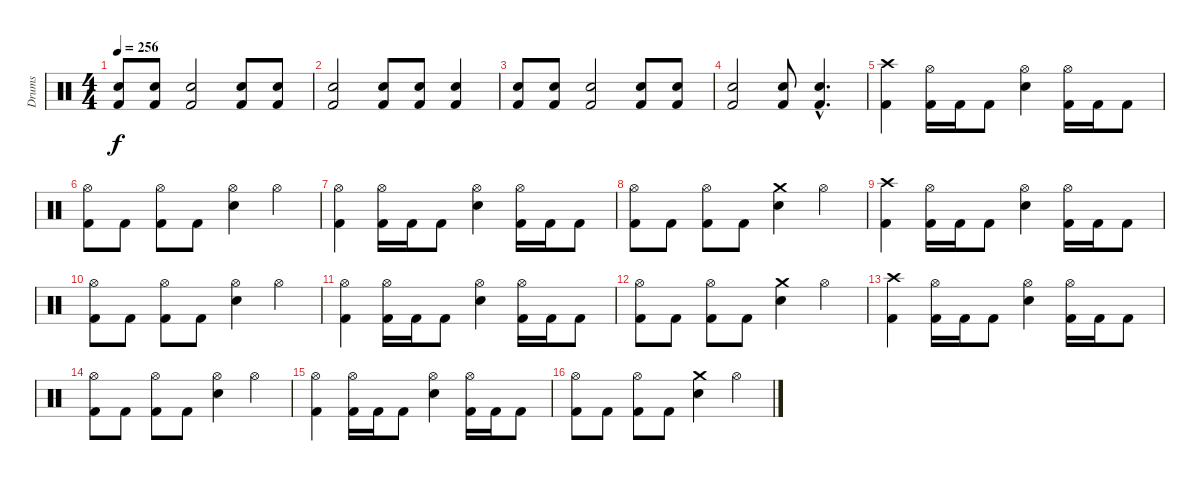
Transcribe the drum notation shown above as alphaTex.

\track ("Drums" "Drums") {instrument percussion}
\staff {score}
\articulation defaults
\ts (4 4)
\tempo 256
\clef neutral
\ks c
("Electric Snare (hit)" "Kick (hit) 2").8{dy f} ("Electric Snare (hit)" "Kick (hit) 2").8 ("Electric Snare (hit)" "Kick (hit) 2").2 ("Electric Snare (hit)" "Kick (hit) 2").8 ("Electric Snare (hit)" "Kick (hit) 2").8 |
("Electric Snare (hit)" "Kick (hit) 2").2 ("Electric Snare (hit)" "Kick (hit) 2").8 ("Electric Snare (hit)" "Kick (hit) 2").8 ("Electric Snare (hit)" "Kick (hit) 2").4 |
("Electric Snare (hit)" "Kick (hit) 2").8 ("Electric Snare (hit)" "Kick (hit) 2").8 ("Electric Snare (hit)" "Kick (hit) 2").2 ("Electric Snare (hit)" "Kick (hit) 2").8 ("Electric Snare (hit)" "Kick (hit) 2").8 |
("Electric Snare (hit)" "Kick (hit) 2").2 ("Electric Snare (hit)" "Kick (hit) 2").8 ("Electric Snare (hit)"{hac} "Kick (hit) 2"{hac}).4{d} |
("Crash high (hit)" "Kick (hit) 2").4 ("Hi-Hat (open)" "Kick (hit) 2").16 "Kick (hit) 2".16 "Kick (hit) 2".8 ("Hi-Hat (open)" "Electric Snare (hit)").4 ("Hi-Hat (open)" "Kick (hit) 2").16 "Kick (hit) 2".16 "Kick (hit) 2".8 |
("Hi-Hat (open)" "Kick (hit) 2").8 "Kick (hit) 2".8 ("Hi-Hat (open)" "Kick (hit) 2").8 "Kick (hit) 2".8 ("Hi-Hat (open)" "Electric Snare (hit)").4 "Hi-Hat (open)".4 |
("Hi-Hat (open)" "Kick (hit) 2").4 ("Hi-Hat (open)" "Kick (hit) 2").16 "Kick (hit) 2".16 "Kick (hit) 2".8 ("Hi-Hat (open)" "Electric Snare (hit)").4 ("Hi-Hat (open)" "Kick (hit) 2").16 "Kick (hit) 2".16 "Kick (hit) 2".8 |
("Hi-Hat (open)" "Kick (hit) 2").8 "Kick (hit) 2".8 ("Hi-Hat (open)" "Kick (hit) 2").8 "Kick (hit) 2".8 ("Crash medium (hit)" "Electric Snare (hit)").4 "Hi-Hat (open)".4 |
("Crash high (hit)" "Kick (hit) 2").4 ("Hi-Hat (open)" "Kick (hit) 2").16 "Kick (hit) 2".16 "Kick (hit) 2".8 ("Hi-Hat (open)" "Electric Snare (hit)").4 ("Hi-Hat (open)" "Kick (hit) 2").16 "Kick (hit) 2".16 "Kick (hit) 2".8 |
("Hi-Hat (open)" "Kick (hit) 2").8 "Kick (hit) 2".8 ("Hi-Hat (open)" "Kick (hit) 2").8 "Kick (hit) 2".8 ("Hi-Hat (open)" "Electric Snare (hit)").4 "Hi-Hat (open)".4 |
("Hi-Hat (open)" "Kick (hit) 2").4 ("Hi-Hat (open)" "Kick (hit) 2").16 "Kick (hit) 2".16 "Kick (hit) 2".8 ("Hi-Hat (open)" "Electric Snare (hit)").4 ("Hi-Hat (open)" "Kick (hit) 2").16 "Kick (hit) 2".16 "Kick (hit) 2".8 |
("Hi-Hat (open)" "Kick (hit) 2").8 "Kick (hit) 2".8 ("Hi-Hat (open)" "Kick (hit) 2").8 "Kick (hit) 2".8 ("Crash medium (hit)" "Electric Snare (hit)").4 "Hi-Hat (open)".4 |
("Crash high (hit)" "Kick (hit) 2").4 ("Hi-Hat (open)" "Kick (hit) 2").16 "Kick (hit) 2".16 "Kick (hit) 2".8 ("Hi-Hat (open)" "Electric Snare (hit)").4 ("Hi-Hat (open)" "Kick (hit) 2").16 "Kick (hit) 2".16 "Kick (hit) 2".8 |
("Hi-Hat (open)" "Kick (hit) 2").8 "Kick (hit) 2".8 ("Hi-Hat (open)" "Kick (hit) 2").8 "Kick (hit) 2".8 ("Hi-Hat (open)" "Electric Snare (hit)").4 "Hi-Hat (open)".4 |
("Hi-Hat (open)" "Kick (hit) 2").4 ("Hi-Hat (open)" "Kick (hit) 2").16 "Kick (hit) 2".16 "Kick (hit) 2".8 ("Hi-Hat (open)" "Electric Snare (hit)").4 ("Hi-Hat (open)" "Kick (hit) 2").16 "Kick (hit) 2".16 "Kick (hit) 2".8 |
("Hi-Hat (open)" "Kick (hit) 2").8 "Kick (hit) 2".8 ("Hi-Hat (open)" "Kick (hit) 2").8 "Kick (hit) 2".8 ("Crash medium (hit)" "Electric Snare (hit)").4 "Hi-Hat (open)".4
